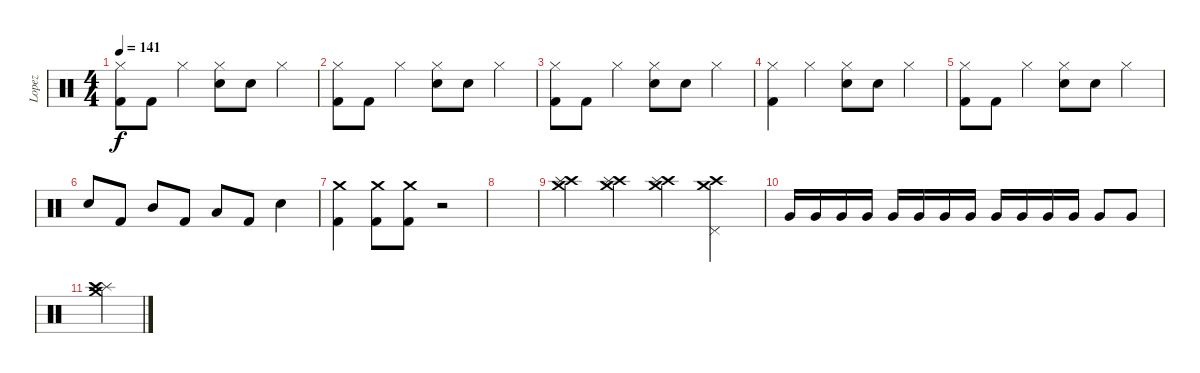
\track ("Lopez" "Lopez") {instrument percussion}
\staff {score}
\articulation defaults
\ts (4 4)
\tempo 141
\clef neutral
\ks c
("Hi-Hat (closed)" "Kick (hit) 2").8{dy f} "Kick (hit) 2".8 "Hi-Hat (closed)".4 ("Hi-Hat (closed)" "Electric Snare (hit)").8 "Electric Snare (hit)".8 "Hi-Hat (closed)".4 |
("Hi-Hat (closed)" "Kick (hit) 2").8 "Kick (hit) 2".8 "Hi-Hat (closed)".4 ("Hi-Hat (closed)" "Electric Snare (hit)").8 "Electric Snare (hit)".8 "Hi-Hat (closed)".4 |
("Hi-Hat (closed)" "Kick (hit) 2").8 "Kick (hit) 2".8 "Hi-Hat (closed)".4 ("Hi-Hat (closed)" "Electric Snare (hit)").8 "Electric Snare (hit)".8 "Hi-Hat (closed)".4 |
("Hi-Hat (closed)" "Kick (hit) 2").4 "Hi-Hat (closed)".4 ("Hi-Hat (closed)" "Electric Snare (hit)").8 "Electric Snare (hit)".8 "Hi-Hat (closed)".4 |
("Hi-Hat (closed)" "Kick (hit) 2").8 "Kick (hit) 2".8 "Hi-Hat (closed)".4 ("Hi-Hat (closed)" "Electric Snare (hit)").8 "Electric Snare (hit)".8 "Hi-Hat (closed)".4 |
"Electric Snare (hit)".8 "Kick (hit) 2".8 "Mid Tom (hit)".8 "Kick (hit) 2".8 "Low Tom (hit)".8 "Kick (hit) 2".8 "Electric Snare (hit)".4 |
("Crash medium (hit)" "Kick (hit) 2").4 ("Crash medium (hit)" "Kick (hit) 2").8 ("Crash medium (hit)" "Kick (hit) 2").8 r.2 |
|
("Crash high (hit)" "Splash (hit)" "Crash medium (hit)").4 ("Crash high (hit)" "Splash (hit)" "Crash medium (hit)").4 ("Crash high (hit)" "Splash (hit)" "Crash medium (hit)").4 ("Crash high (hit)" "Pedal Hi-Hat (hit)" "Crash medium (hit)").4 |
"Very Low Tom (hit)".16 "Very Low Tom (hit)".16 "Very Low Tom (hit)".16 "Very Low Tom (hit)".16 "Very Low Tom (hit)".16 "Very Low Tom (hit)".16 "Very Low Tom (hit)".16 "Very Low Tom (hit)".16 "Very Low Tom (hit)".16 "Very Low Tom (hit)".16 "Very Low Tom (hit)".16 "Very Low Tom (hit)".16 "Very Low Tom (hit)".8 "Very Low Tom (hit)".8 |
("Splash (hit)" "Crash high (hit)" "Crash medium (hit)").4
